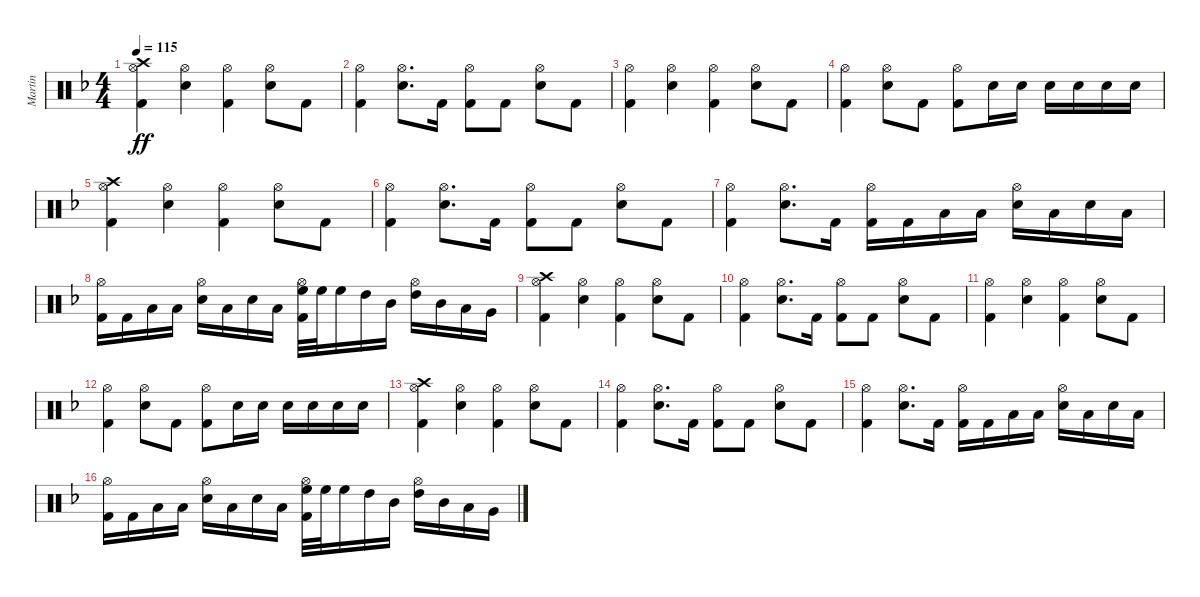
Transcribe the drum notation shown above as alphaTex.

\track ("Martin" "Martin") {instrument percussion}
\staff {score}
\articulation defaults
\ts (4 4)
\tempo 115
\clef neutral
\ks dminor
("Crash high (hit)" "Hi-Hat (open)" "Kick (hit) 2").4{dy ff volume 16} ("Hi-Hat (open)" "Electric Snare (hit)").4 ("Hi-Hat (open)" "Kick (hit) 2").4 ("Hi-Hat (open)" "Electric Snare (hit)").8 "Kick (hit) 2".8 |
("Hi-Hat (open)" "Kick (hit) 2").4 ("Hi-Hat (open)" "Electric Snare (hit)").8{d} "Kick (hit) 2".16 ("Hi-Hat (open)" "Kick (hit) 2").8 "Kick (hit) 2".8 ("Hi-Hat (open)" "Electric Snare (hit)").8 "Kick (hit) 2".8 |
("Hi-Hat (open)" "Kick (hit) 2").4 ("Hi-Hat (open)" "Electric Snare (hit)").4 ("Hi-Hat (open)" "Kick (hit) 2").4 ("Hi-Hat (open)" "Electric Snare (hit)").8 "Kick (hit) 2".8 |
("Hi-Hat (open)" "Kick (hit) 2").4 ("Hi-Hat (open)" "Electric Snare (hit)").8 "Kick (hit) 2".8 ("Hi-Hat (open)" "Kick (hit) 2").8 "Electric Snare (hit)".16 "Electric Snare (hit)".16 "Electric Snare (hit)".16 "Electric Snare (hit)".16 "Electric Snare (hit)".16 "Electric Snare (hit)".16 |
("Crash high (hit)" "Hi-Hat (open)" "Kick (hit) 2").4 ("Hi-Hat (open)" "Electric Snare (hit)").4 ("Hi-Hat (open)" "Kick (hit) 2").4 ("Hi-Hat (open)" "Electric Snare (hit)").8 "Kick (hit) 2".8 |
("Hi-Hat (open)" "Kick (hit) 2").4 ("Hi-Hat (open)" "Electric Snare (hit)").8{d} "Kick (hit) 2".16 ("Hi-Hat (open)" "Kick (hit) 2").8 "Kick (hit) 2".8 ("Hi-Hat (open)" "Electric Snare (hit)").8 "Kick (hit) 2".8 |
("Hi-Hat (open)" "Kick (hit) 2").4 ("Hi-Hat (open)" "Electric Snare (hit)").8{d} "Kick (hit) 2".16 ("Hi-Hat (open)" "Kick (hit) 2").16 "Kick (hit) 2".16 "Low Tom (hit)".16 "Low Tom (hit)".16 ("Hi-Hat (open)" "Electric Snare (hit)").16 "Low Tom (hit)".16 "Electric Snare (hit)".16 "Low Tom (hit)".16 |
("Hi-Hat (open)" "Kick (hit) 2").16 "Kick (hit) 2".16 "Low Tom (hit)".16 "Low Tom (hit)".16 ("Hi-Hat (open)" "Electric Snare (hit)").16 "Low Tom (hit)".16 "Electric Snare (hit)".16 "Low Tom (hit)".16 ("Hi-Hat (open)" "High Floor Tom (hit)" "Kick (hit) 2").32 "High Floor Tom (hit)".32 "High Floor Tom (hit)".16 "High Tom (hit)".16 "Mid Tom (hit)".16 ("Hi-Hat (open)" "High Tom (hit)").16 "Mid Tom (hit)".16 "Low Tom (hit)".16 "Very Low Tom (hit)".16 |
("Crash high (hit)" "Hi-Hat (open)" "Kick (hit) 2").4 ("Hi-Hat (open)" "Electric Snare (hit)").4 ("Hi-Hat (open)" "Kick (hit) 2").4 ("Hi-Hat (open)" "Electric Snare (hit)").8 "Kick (hit) 2".8 |
("Hi-Hat (open)" "Kick (hit) 2").4 ("Hi-Hat (open)" "Electric Snare (hit)").8{d} "Kick (hit) 2".16 ("Hi-Hat (open)" "Kick (hit) 2").8 "Kick (hit) 2".8 ("Hi-Hat (open)" "Electric Snare (hit)").8 "Kick (hit) 2".8 |
("Hi-Hat (open)" "Kick (hit) 2").4 ("Hi-Hat (open)" "Electric Snare (hit)").4 ("Hi-Hat (open)" "Kick (hit) 2").4 ("Hi-Hat (open)" "Electric Snare (hit)").8 "Kick (hit) 2".8 |
("Hi-Hat (open)" "Kick (hit) 2").4 ("Hi-Hat (open)" "Electric Snare (hit)").8 "Kick (hit) 2".8 ("Hi-Hat (open)" "Kick (hit) 2").8 "Electric Snare (hit)".16 "Electric Snare (hit)".16 "Electric Snare (hit)".16 "Electric Snare (hit)".16 "Electric Snare (hit)".16 "Electric Snare (hit)".16 |
("Crash high (hit)" "Hi-Hat (open)" "Kick (hit) 2").4 ("Hi-Hat (open)" "Electric Snare (hit)").4 ("Hi-Hat (open)" "Kick (hit) 2").4 ("Hi-Hat (open)" "Electric Snare (hit)").8 "Kick (hit) 2".8 |
("Hi-Hat (open)" "Kick (hit) 2").4 ("Hi-Hat (open)" "Electric Snare (hit)").8{d} "Kick (hit) 2".16 ("Hi-Hat (open)" "Kick (hit) 2").8 "Kick (hit) 2".8 ("Hi-Hat (open)" "Electric Snare (hit)").8 "Kick (hit) 2".8 |
("Hi-Hat (open)" "Kick (hit) 2").4 ("Hi-Hat (open)" "Electric Snare (hit)").8{d} "Kick (hit) 2".16 ("Hi-Hat (open)" "Kick (hit) 2").16 "Kick (hit) 2".16 "Low Tom (hit)".16 "Low Tom (hit)".16 ("Hi-Hat (open)" "Electric Snare (hit)").16 "Low Tom (hit)".16 "Electric Snare (hit)".16 "Low Tom (hit)".16 |
("Hi-Hat (open)" "Kick (hit) 2").16 "Kick (hit) 2".16 "Low Tom (hit)".16 "Low Tom (hit)".16 ("Hi-Hat (open)" "Electric Snare (hit)").16 "Low Tom (hit)".16 "Electric Snare (hit)".16 "Low Tom (hit)".16 ("Hi-Hat (open)" "High Floor Tom (hit)" "Kick (hit) 2").32 "High Floor Tom (hit)".32 "High Floor Tom (hit)".16 "High Tom (hit)".16 "Mid Tom (hit)".16 ("Hi-Hat (open)" "High Tom (hit)").16 "Mid Tom (hit)".16 "Low Tom (hit)".16 "Very Low Tom (hit)".16
